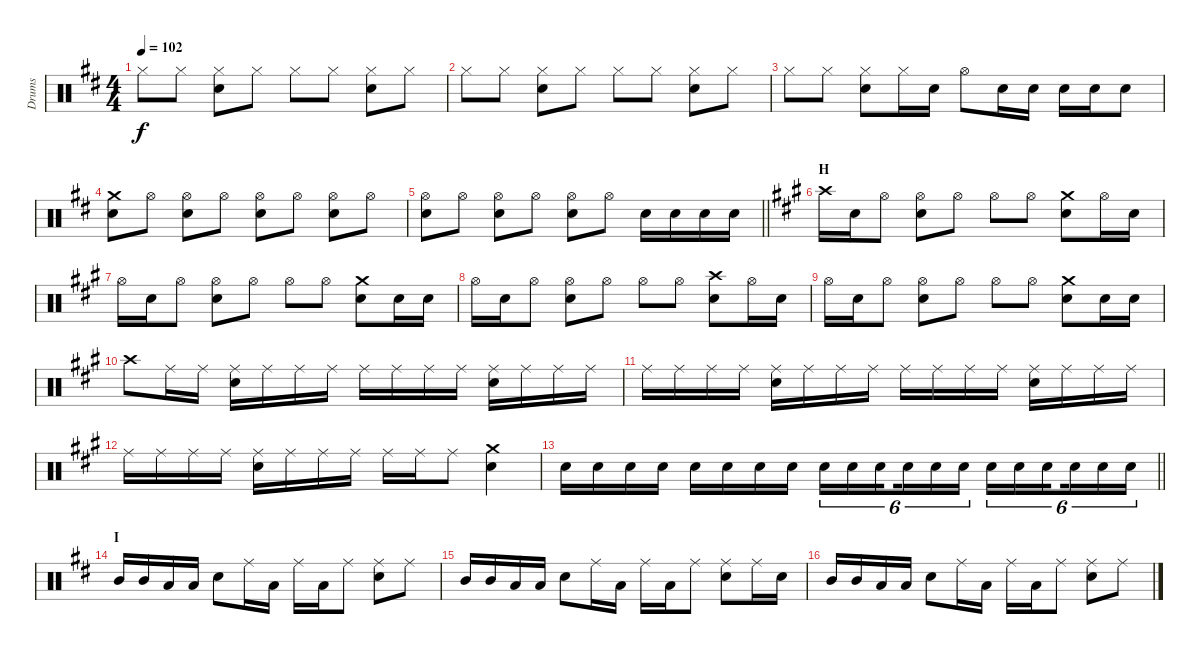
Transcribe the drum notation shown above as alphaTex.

\track ("Drums" "Drums") {instrument percussion}
\staff {score}
\articulation defaults
\ts (4 4)
\tempo 102
\clef neutral
\ks d "Hi-Hat (closed)".8{dy f} "Hi-Hat (closed)".8
("Hi-Hat (closed)" "Snare (hit) 2").8 "Hi-Hat (closed)".8 "Hi-Hat (closed)".8 "Hi-Hat (closed)".8 ("Hi-Hat (closed)" "Snare (hit) 2").8 "Hi-Hat (closed)".8 |
"Hi-Hat (closed)".8 "Hi-Hat (closed)".8 ("Hi-Hat (closed)" "Snare (hit) 2").8 "Hi-Hat (closed)".8 "Hi-Hat (closed)".8 "Hi-Hat (closed)".8 ("Hi-Hat (closed)" "Snare (hit) 2").8 "Hi-Hat (closed)".8 |
"Hi-Hat (closed)".8 "Hi-Hat (closed)".8 ("Hi-Hat (closed)" "Snare (hit) 2").8 "Hi-Hat (closed)".16 "Snare (hit) 2".16 "Hi-Hat (open)".8 "Snare (hit) 2".16 "Snare (hit) 2".16 "Snare (hit) 2".16 "Snare (hit) 2".16 "Snare (hit) 2".8 |
("Crash medium (hit)" "Snare (hit) 2").8 "Hi-Hat (open)".8 ("Hi-Hat (open)" "Snare (hit) 2").8 "Hi-Hat (open)".8 ("Hi-Hat (open)" "Snare (hit) 2").8 "Hi-Hat (open)".8 ("Hi-Hat (open)" "Snare (hit) 2").8 "Hi-Hat (open)".8 |
\barLineRight lightlight
("Hi-Hat (open)" "Snare (hit) 2").8 "Hi-Hat (open)".8 ("Hi-Hat (open)" "Snare (hit) 2").8 "Hi-Hat (open)".8 ("Hi-Hat (open)" "Snare (hit) 2").8 "Hi-Hat (open)".8 "Snare (hit) 2".16 "Snare (hit) 2".16 "Snare (hit) 2".16 "Snare (hit) 2".16 |
\section ("" "H")
\ks a "Crash high (hit)".16 "Snare (hit) 2".16 "Hi-Hat (open)".8
("Hi-Hat (open)" "Snare (hit) 2").8 "Hi-Hat (open)".8 "Hi-Hat (open)".8 "Hi-Hat (open)".8 ("Crash medium (hit)" "Snare (hit) 2").8 "Hi-Hat (open)".16 "Snare (hit) 2".16 |
"Hi-Hat (open)".16 "Snare (hit) 2".16 "Hi-Hat (open)".8 ("Hi-Hat (open)" "Snare (hit) 2").8 "Hi-Hat (open)".8 "Hi-Hat (open)".8 "Hi-Hat (open)".8 ("Crash medium (hit)" "Snare (hit) 2").8 "Snare (hit) 2".16 "Snare (hit) 2".16 |
"Hi-Hat (open)".16 "Snare (hit) 2".16 "Hi-Hat (open)".8 ("Hi-Hat (open)" "Snare (hit) 2").8 "Hi-Hat (open)".8 "Hi-Hat (open)".8 "Hi-Hat (open)".8 ("Crash high (hit)" "Snare (hit) 2").8 "Hi-Hat (open)".16 "Snare (hit) 2".16 |
"Hi-Hat (open)".16 "Snare (hit) 2".16 "Hi-Hat (open)".8 ("Hi-Hat (open)" "Snare (hit) 2").8 "Hi-Hat (open)".8 "Hi-Hat (open)".8 "Hi-Hat (open)".8 ("Crash medium (hit)" "Snare (hit) 2").8 "Snare (hit) 2".16 "Snare (hit) 2".16 |
"Crash high (hit)".8 "Ride (middle)".16 "Ride (middle)".16 ("Ride (middle)" "Snare (hit) 2").16 "Ride (middle)".16 "Ride (middle)".16 "Ride (middle)".16 "Ride (middle)".16 "Ride (middle)".16 "Ride (middle)".16 "Ride (middle)".16 ("Ride (middle)" "Snare (hit) 2").16 "Ride (middle)".16 "Ride (middle)".16 "Ride (middle)".16 |
"Ride (middle)".16 "Ride (middle)".16 "Ride (middle)".16 "Ride (middle)".16 ("Ride (middle)" "Snare (hit) 2").16 "Ride (middle)".16 "Ride (middle)".16 "Ride (middle)".16 "Ride (middle)".16 "Ride (middle)".16 "Ride (middle)".16 "Ride (middle)".16 ("Ride (middle)" "Snare (hit) 2").16 "Ride (middle)".16 "Ride (middle)".16 "Ride (middle)".16 |
"Ride (middle)".16 "Ride (middle)".16 "Ride (middle)".16 "Ride (middle)".16 ("Ride (middle)" "Snare (hit) 2").16 "Ride (middle)".16 "Ride (middle)".16 "Ride (middle)".16 "Ride (middle)".16 "Ride (middle)".16 "Ride (middle)".8 ("Crash medium (hit)" "Snare (hit) 2").4 |
\barLineRight lightlight "Snare (hit) 2".16 "Snare (hit) 2".16 "Snare (hit) 2".16 "Snare (hit) 2".16 "Snare (hit) 2".16 "Snare (hit) 2".16 "Snare (hit) 2".16 "Snare (hit) 2".16 "Snare (hit) 2".16{tu (6 4)} "Snare (hit) 2".16{tu (6 4)} "Snare (hit) 2".16{tu (6 4) beam splitsecondary} "Snare (hit) 2".16{tu (6 4)} "Snare (hit) 2".16{tu (6 4)} "Snare (hit) 2".16{tu (6 4)} "Snare (hit) 2".16{tu (6 4)} "Snare (hit) 2".16{tu (6 4)} "Snare (hit) 2".16{tu (6 4) beam splitsecondary} "Snare (hit) 2".16{tu (6 4)} "Snare (hit) 2".16{tu (6 4)} "Snare (hit) 2".16{tu (6 4)}
|
\section ("" "I")
\ks d "Mid Tom (hit)".16 "Mid Tom (hit)".16 "Low Tom (hit)".16 "Low Tom (hit)".16 "Snare (hit) 2".8 "Ride (middle)".16 "Low Tom (hit)".16 "Ride (middle)".16 "Low Tom (hit)".16 "Ride (middle)".8
("Ride (middle)" "Snare (hit) 2").8 "Ride (middle)".8 |
"Mid Tom (hit)".16 "Mid Tom (hit)".16 "Low Tom (hit)".16 "Low Tom (hit)".16 "Snare (hit) 2".8 "Ride (middle)".16 "Low Tom (hit)".16 "Ride (middle)".16 "Low Tom (hit)".16 "Ride (middle)".8 ("Ride (middle)" "Snare (hit) 2").8 "Ride (middle)".16 "Snare (hit) 2".16 |
"Mid Tom (hit)".16 "Mid Tom (hit)".16 "Low Tom (hit)".16 "Low Tom (hit)".16 "Snare (hit) 2".8 "Ride (middle)".16 "Low Tom (hit)".16 "Ride (middle)".16 "Low Tom (hit)".16 "Ride (middle)".8 ("Ride (middle)" "Snare (hit) 2").8 "Ride (middle)".8
